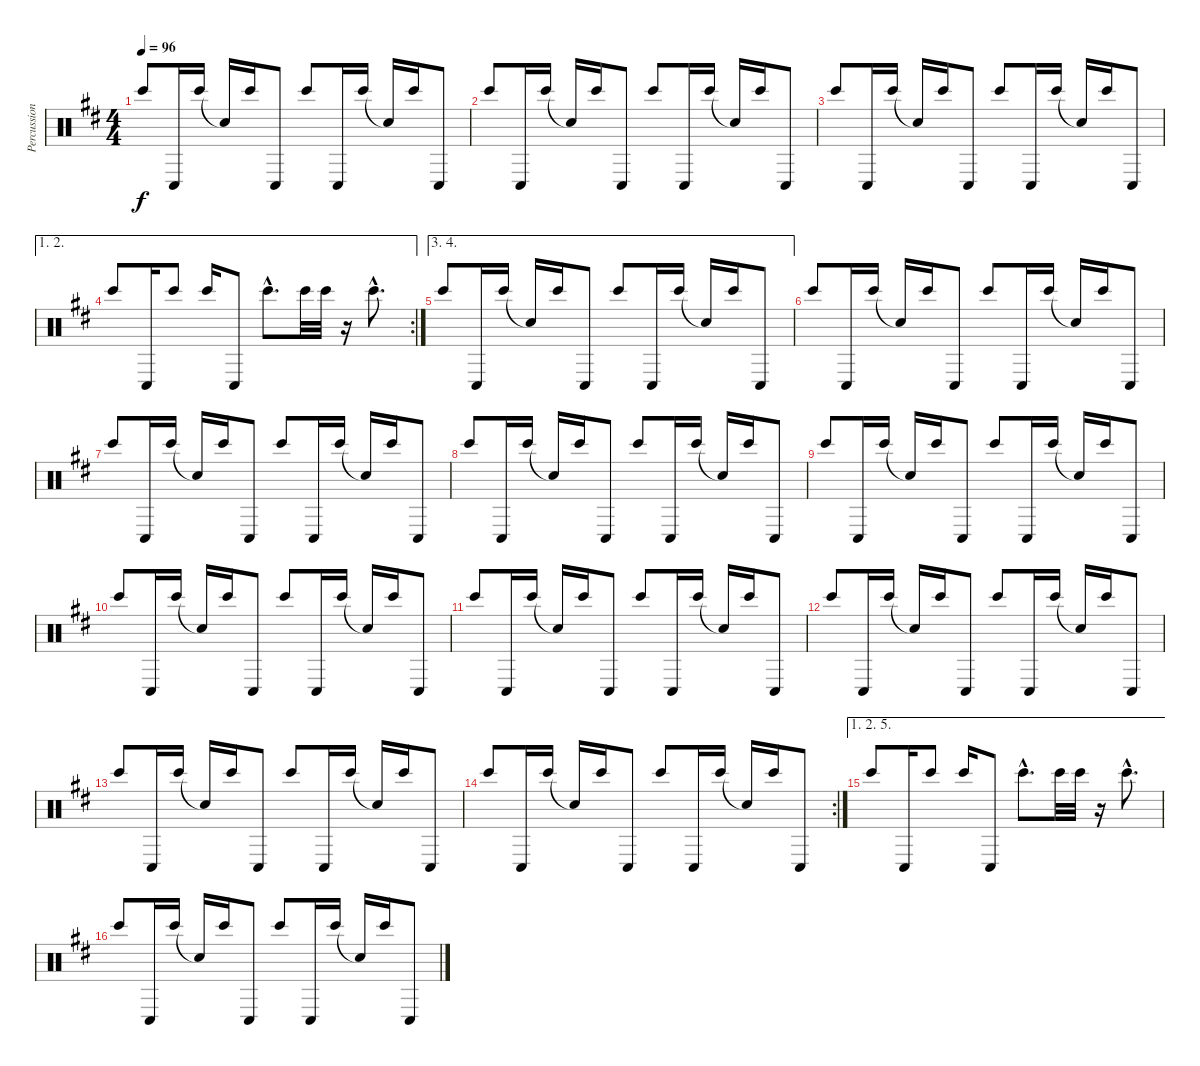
\track ("Percussion" "Percussion") {instrument percussion}
\staff {score}
\articulation defaults
\ts (4 4)
\tempo 96
\clef neutral
\ks d "Bongo High (hit)".8{dy f} "Conga low (hit)".16 "Bongo High (hit)".16 "Snare (hit)"{t}.16 "Bongo High (hit)".16 "Conga low (hit)".8 "Bongo High (hit)".8 "Conga low (hit)".16 "Bongo High (hit)".16 "Snare (hit)"{t}.16 "Bongo High (hit)".16 "Conga low (hit)".8
|
"Bongo High (hit)".8 "Conga low (hit)".16 "Bongo High (hit)".16 "Snare (hit)"{t}.16 "Bongo High (hit)".16 "Conga low (hit)".8 "Bongo High (hit)".8 "Conga low (hit)".16 "Bongo High (hit)".16 "Snare (hit)"{t}.16 "Bongo High (hit)".16 "Conga low (hit)".8 |
"Bongo High (hit)".8 "Conga low (hit)".16 "Bongo High (hit)".16 "Snare (hit)"{t}.16 "Bongo High (hit)".16 "Conga low (hit)".8 "Bongo High (hit)".8 "Conga low (hit)".16 "Bongo High (hit)".16 "Snare (hit)"{t}.16 "Bongo High (hit)".16 "Conga low (hit)".8 |
\ae (1 2)
\rc 2 "Bongo High (hit)".8 "Conga low (hit)".16 "Bongo High (hit)".8 "Bongo High (hit)".16 "Conga low (hit)".8 "Bongo High (hit)"{hac}.8{d} "Bongo High (hit)".32 "Bongo High (hit)".32
r.16 "Bongo High (hit)"{hac}.8{d} |
\ae (3 4)
"Bongo High (hit)".8 "Conga low (hit)".16 "Bongo High (hit)".16 "Snare (hit)"{t}.16 "Bongo High (hit)".16 "Conga low (hit)".8 "Bongo High (hit)".8 "Conga low (hit)".16 "Bongo High (hit)".16 "Snare (hit)"{t}.16 "Bongo High (hit)".16 "Conga low (hit)".8 |
"Bongo High (hit)".8 "Conga low (hit)".16 "Bongo High (hit)".16 "Snare (hit)"{t}.16 "Bongo High (hit)".16 "Conga low (hit)".8 "Bongo High (hit)".8 "Conga low (hit)".16 "Bongo High (hit)".16 "Snare (hit)"{t}.16 "Bongo High (hit)".16 "Conga low (hit)".8 |
"Bongo High (hit)".8 "Conga low (hit)".16 "Bongo High (hit)".16 "Snare (hit)"{t}.16 "Bongo High (hit)".16 "Conga low (hit)".8 "Bongo High (hit)".8 "Conga low (hit)".16 "Bongo High (hit)".16 "Snare (hit)"{t}.16 "Bongo High (hit)".16 "Conga low (hit)".8 |
"Bongo High (hit)".8 "Conga low (hit)".16 "Bongo High (hit)".16 "Snare (hit)"{t}.16 "Bongo High (hit)".16 "Conga low (hit)".8 "Bongo High (hit)".8 "Conga low (hit)".16 "Bongo High (hit)".16 "Snare (hit)"{t}.16 "Bongo High (hit)".16 "Conga low (hit)".8 |
"Bongo High (hit)".8 "Conga low (hit)".16 "Bongo High (hit)".16 "Snare (hit)"{t}.16 "Bongo High (hit)".16 "Conga low (hit)".8 "Bongo High (hit)".8 "Conga low (hit)".16 "Bongo High (hit)".16 "Snare (hit)"{t}.16 "Bongo High (hit)".16 "Conga low (hit)".8 |
"Bongo High (hit)".8 "Conga low (hit)".16 "Bongo High (hit)".16 "Snare (hit)"{t}.16 "Bongo High (hit)".16 "Conga low (hit)".8 "Bongo High (hit)".8 "Conga low (hit)".16 "Bongo High (hit)".16 "Snare (hit)"{t}.16 "Bongo High (hit)".16 "Conga low (hit)".8 |
"Bongo High (hit)".8 "Conga low (hit)".16 "Bongo High (hit)".16 "Snare (hit)"{t}.16 "Bongo High (hit)".16 "Conga low (hit)".8 "Bongo High (hit)".8 "Conga low (hit)".16 "Bongo High (hit)".16 "Snare (hit)"{t}.16 "Bongo High (hit)".16 "Conga low (hit)".8 |
"Bongo High (hit)".8 "Conga low (hit)".16 "Bongo High (hit)".16 "Snare (hit)"{t}.16 "Bongo High (hit)".16 "Conga low (hit)".8 "Bongo High (hit)".8 "Conga low (hit)".16 "Bongo High (hit)".16 "Snare (hit)"{t}.16 "Bongo High (hit)".16 "Conga low (hit)".8 |
"Bongo High (hit)".8 "Conga low (hit)".16 "Bongo High (hit)".16 "Snare (hit)"{t}.16 "Bongo High (hit)".16 "Conga low (hit)".8 "Bongo High (hit)".8 "Conga low (hit)".16 "Bongo High (hit)".16 "Snare (hit)"{t}.16 "Bongo High (hit)".16 "Conga low (hit)".8 |
\rc 2 "Bongo High (hit)".8 "Conga low (hit)".16 "Bongo High (hit)".16 "Snare (hit)"{t}.16 "Bongo High (hit)".16 "Conga low (hit)".8 "Bongo High (hit)".8 "Conga low (hit)".16 "Bongo High (hit)".16 "Snare (hit)"{t}.16 "Bongo High (hit)".16 "Conga low (hit)".8
|
\ae (1 2 5)
"Bongo High (hit)".8 "Conga low (hit)".16 "Bongo High (hit)".8 "Bongo High (hit)".16 "Conga low (hit)".8 "Bongo High (hit)"{hac}.8{d} "Bongo High (hit)".32 "Bongo High (hit)".32 r.16 "Bongo High (hit)"{hac}.8{d} |
"Bongo High (hit)".8 "Conga low (hit)".16 "Bongo High (hit)".16 "Snare (hit)"{t}.16 "Bongo High (hit)".16 "Conga low (hit)".8 "Bongo High (hit)".8 "Conga low (hit)".16 "Bongo High (hit)".16 "Snare (hit)"{t}.16 "Bongo High (hit)".16 "Conga low (hit)".8
